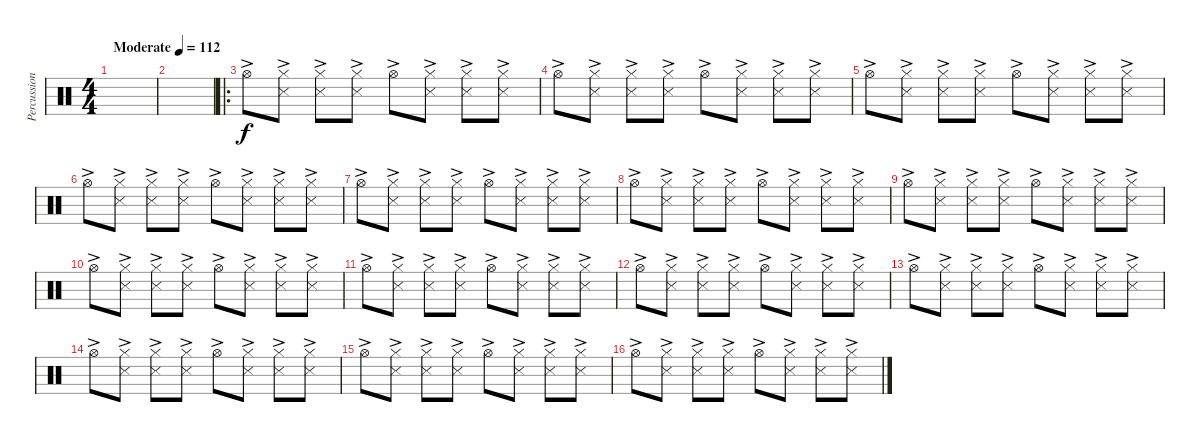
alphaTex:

\track ("Percussion" "Percussion") {instrument percussion}
\staff {score}
\articulation defaults
\ts (4 4)
\tempo (112 "Moderate")
\clef neutral
\ks c
|
|
\ro "Hi-Hat (open)"{ac}.8
("Hi-Hat (closed)"{ac} "Snare (side stick) 3"{ac}).8 ("Hi-Hat (closed)"{ac} "Snare (side stick) 3"{ac}).8 ("Hi-Hat (closed)"{ac} "Snare (side stick) 3"{ac}).8 "Hi-Hat (open)"{ac}.8 ("Hi-Hat (closed)"{ac} "Snare (side stick) 3"{ac}).8 ("Hi-Hat (closed)"{ac} "Snare (side stick) 3"{ac}).8 ("Hi-Hat (closed)"{ac} "Snare (side stick) 3"{ac}).8 |
"Hi-Hat (open)"{ac}.8 ("Hi-Hat (closed)"{ac} "Snare (side stick) 3"{ac}).8 ("Hi-Hat (closed)"{ac} "Snare (side stick) 3"{ac}).8 ("Hi-Hat (closed)"{ac} "Snare (side stick) 3"{ac}).8 "Hi-Hat (open)"{ac}.8 ("Hi-Hat (closed)"{ac} "Snare (side stick) 3"{ac}).8 ("Hi-Hat (closed)"{ac} "Snare (side stick) 3"{ac}).8 ("Hi-Hat (closed)"{ac} "Snare (side stick) 3"{ac}).8 |
"Hi-Hat (open)"{ac}.8 ("Hi-Hat (closed)"{ac} "Snare (side stick) 3"{ac}).8 ("Hi-Hat (closed)"{ac} "Snare (side stick) 3"{ac}).8 ("Hi-Hat (closed)"{ac} "Snare (side stick) 3"{ac}).8 "Hi-Hat (open)"{ac}.8 ("Hi-Hat (closed)"{ac} "Snare (side stick) 3"{ac}).8 ("Hi-Hat (closed)"{ac} "Snare (side stick) 3"{ac}).8 ("Hi-Hat (closed)"{ac} "Snare (side stick) 3"{ac}).8 |
"Hi-Hat (open)"{ac}.8 ("Hi-Hat (closed)"{ac} "Snare (side stick) 3"{ac}).8 ("Hi-Hat (closed)"{ac} "Snare (side stick) 3"{ac}).8 ("Hi-Hat (closed)"{ac} "Snare (side stick) 3"{ac}).8 "Hi-Hat (open)"{ac}.8 ("Hi-Hat (closed)"{ac} "Snare (side stick) 3"{ac}).8 ("Hi-Hat (closed)"{ac} "Snare (side stick) 3"{ac}).8 ("Hi-Hat (closed)"{ac} "Snare (side stick) 3"{ac}).8 |
"Hi-Hat (open)"{ac}.8 ("Hi-Hat (closed)"{ac} "Snare (side stick) 3"{ac}).8 ("Hi-Hat (closed)"{ac} "Snare (side stick) 3"{ac}).8 ("Hi-Hat (closed)"{ac} "Snare (side stick) 3"{ac}).8 "Hi-Hat (open)"{ac}.8 ("Hi-Hat (closed)"{ac} "Snare (side stick) 3"{ac}).8 ("Hi-Hat (closed)"{ac} "Snare (side stick) 3"{ac}).8 ("Hi-Hat (closed)"{ac} "Snare (side stick) 3"{ac}).8 |
"Hi-Hat (open)"{ac}.8 ("Hi-Hat (closed)"{ac} "Snare (side stick) 3"{ac}).8 ("Hi-Hat (closed)"{ac} "Snare (side stick) 3"{ac}).8 ("Hi-Hat (closed)"{ac} "Snare (side stick) 3"{ac}).8 "Hi-Hat (open)"{ac}.8 ("Hi-Hat (closed)"{ac} "Snare (side stick) 3"{ac}).8 ("Hi-Hat (closed)"{ac} "Snare (side stick) 3"{ac}).8 ("Hi-Hat (closed)"{ac} "Snare (side stick) 3"{ac}).8 |
"Hi-Hat (open)"{ac}.8 ("Hi-Hat (closed)"{ac} "Snare (side stick) 3"{ac}).8 ("Hi-Hat (closed)"{ac} "Snare (side stick) 3"{ac}).8 ("Hi-Hat (closed)"{ac} "Snare (side stick) 3"{ac}).8 "Hi-Hat (open)"{ac}.8 ("Hi-Hat (closed)"{ac} "Snare (side stick) 3"{ac}).8 ("Hi-Hat (closed)"{ac} "Snare (side stick) 3"{ac}).8 ("Hi-Hat (closed)"{ac} "Snare (side stick) 3"{ac}).8 |
"Hi-Hat (open)"{ac}.8 ("Hi-Hat (closed)"{ac} "Snare (side stick) 3"{ac}).8 ("Hi-Hat (closed)"{ac} "Snare (side stick) 3"{ac}).8 ("Hi-Hat (closed)"{ac} "Snare (side stick) 3"{ac}).8 "Hi-Hat (open)"{ac}.8 ("Hi-Hat (closed)"{ac} "Snare (side stick) 3"{ac}).8 ("Hi-Hat (closed)"{ac} "Snare (side stick) 3"{ac}).8 ("Hi-Hat (closed)"{ac} "Snare (side stick) 3"{ac}).8 |
"Hi-Hat (open)"{ac}.8 ("Hi-Hat (closed)"{ac} "Snare (side stick) 3"{ac}).8 ("Hi-Hat (closed)"{ac} "Snare (side stick) 3"{ac}).8 ("Hi-Hat (closed)"{ac} "Snare (side stick) 3"{ac}).8 "Hi-Hat (open)"{ac}.8 ("Hi-Hat (closed)"{ac} "Snare (side stick) 3"{ac}).8 ("Hi-Hat (closed)"{ac} "Snare (side stick) 3"{ac}).8 ("Hi-Hat (closed)"{ac} "Snare (side stick) 3"{ac}).8 |
"Hi-Hat (open)"{ac}.8 ("Hi-Hat (closed)"{ac} "Snare (side stick) 3"{ac}).8 ("Hi-Hat (closed)"{ac} "Snare (side stick) 3"{ac}).8 ("Hi-Hat (closed)"{ac} "Snare (side stick) 3"{ac}).8 "Hi-Hat (open)"{ac}.8 ("Hi-Hat (closed)"{ac} "Snare (side stick) 3"{ac}).8 ("Hi-Hat (closed)"{ac} "Snare (side stick) 3"{ac}).8 ("Hi-Hat (closed)"{ac} "Snare (side stick) 3"{ac}).8 |
"Hi-Hat (open)"{ac}.8 ("Hi-Hat (closed)"{ac} "Snare (side stick) 3"{ac}).8 ("Hi-Hat (closed)"{ac} "Snare (side stick) 3"{ac}).8 ("Hi-Hat (closed)"{ac} "Snare (side stick) 3"{ac}).8 "Hi-Hat (open)"{ac}.8 ("Hi-Hat (closed)"{ac} "Snare (side stick) 3"{ac}).8 ("Hi-Hat (closed)"{ac} "Snare (side stick) 3"{ac}).8 ("Hi-Hat (closed)"{ac} "Snare (side stick) 3"{ac}).8 |
"Hi-Hat (open)"{ac}.8 ("Hi-Hat (closed)"{ac} "Snare (side stick) 3"{ac}).8 ("Hi-Hat (closed)"{ac} "Snare (side stick) 3"{ac}).8 ("Hi-Hat (closed)"{ac} "Snare (side stick) 3"{ac}).8 "Hi-Hat (open)"{ac}.8 ("Hi-Hat (closed)"{ac} "Snare (side stick) 3"{ac}).8 ("Hi-Hat (closed)"{ac} "Snare (side stick) 3"{ac}).8 ("Hi-Hat (closed)"{ac} "Snare (side stick) 3"{ac}).8 |
"Hi-Hat (open)"{ac}.8 ("Hi-Hat (closed)"{ac} "Snare (side stick) 3"{ac}).8 ("Hi-Hat (closed)"{ac} "Snare (side stick) 3"{ac}).8 ("Hi-Hat (closed)"{ac} "Snare (side stick) 3"{ac}).8 "Hi-Hat (open)"{ac}.8 ("Hi-Hat (closed)"{ac} "Snare (side stick) 3"{ac}).8 ("Hi-Hat (closed)"{ac} "Snare (side stick) 3"{ac}).8 ("Hi-Hat (closed)"{ac} "Snare (side stick) 3"{ac}).8 |
"Hi-Hat (open)"{ac}.8 ("Hi-Hat (closed)"{ac} "Snare (side stick) 3"{ac}).8 ("Hi-Hat (closed)"{ac} "Snare (side stick) 3"{ac}).8 ("Hi-Hat (closed)"{ac} "Snare (side stick) 3"{ac}).8 "Hi-Hat (open)"{ac}.8 ("Hi-Hat (closed)"{ac} "Snare (side stick) 3"{ac}).8 ("Hi-Hat (closed)"{ac} "Snare (side stick) 3"{ac}).8 ("Hi-Hat (closed)"{ac} "Snare (side stick) 3"{ac}).8
